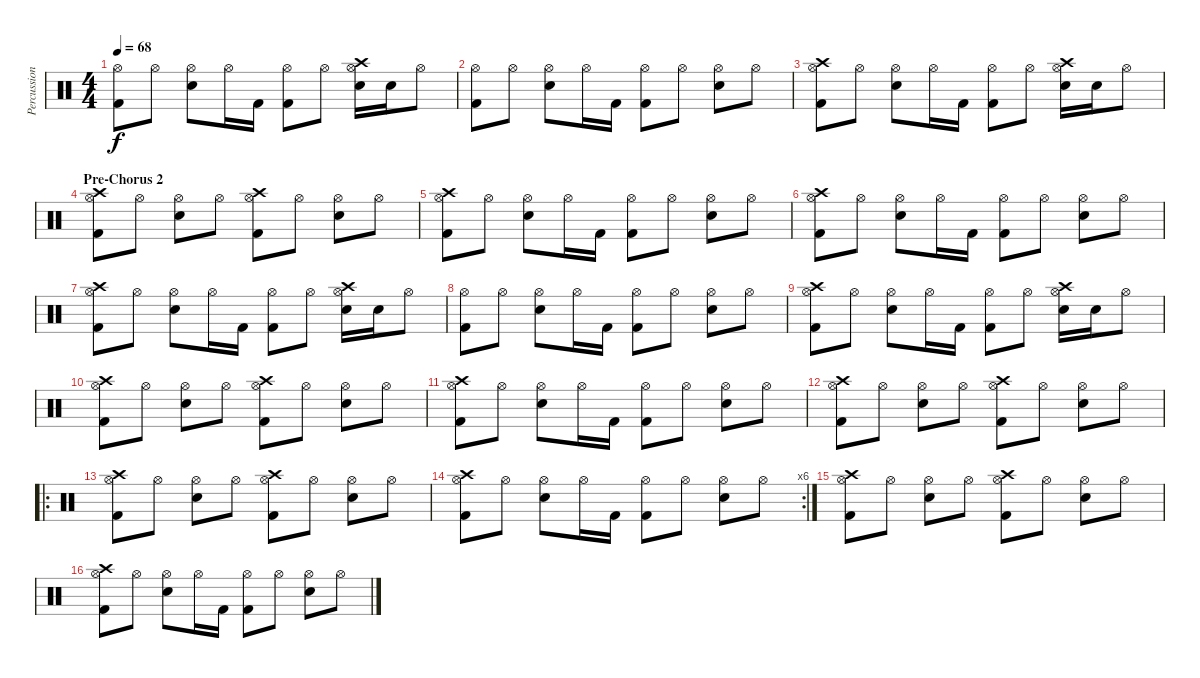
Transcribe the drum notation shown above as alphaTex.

\track ("Percussions" "Percussion") {instrument percussion}
\staff {score}
\articulation defaults
\ts (4 4)
\tempo 68
\clef neutral
\ks c
("Hi-Hat (open)" "Kick (hit) 2").8{dy f} "Hi-Hat (open)".8 ("Hi-Hat (open)" "Snare (hit) 2").8 "Hi-Hat (open)".16 "Kick (hit) 2".16 ("Hi-Hat (open)" "Kick (hit) 2").8 "Hi-Hat (open)".8 ("Hi-Hat (open)" "Crash high (hit)" "Snare (hit) 2").16 "Snare (hit) 2".16 "Hi-Hat (open)".8 |
("Hi-Hat (open)" "Kick (hit) 2").8 "Hi-Hat (open)".8 ("Hi-Hat (open)" "Snare (hit) 2").8 "Hi-Hat (open)".16 "Kick (hit) 2".16 ("Hi-Hat (open)" "Kick (hit) 2").8 "Hi-Hat (open)".8 ("Hi-Hat (open)" "Snare (hit) 2").8 "Hi-Hat (open)".8 |
("Hi-Hat (open)" "Crash high (hit)" "Kick (hit) 2").8 "Hi-Hat (open)".8 ("Hi-Hat (open)" "Snare (hit) 2").8 "Hi-Hat (open)".16 "Kick (hit) 2".16 ("Hi-Hat (open)" "Kick (hit) 2").8 "Hi-Hat (open)".8 ("Hi-Hat (open)" "Crash high (hit)" "Snare (hit) 2").16 "Snare (hit) 2".16 "Hi-Hat (open)".8 |
\section ("" "Pre-Chorus 2")
("Hi-Hat (open)" "Crash high (hit)" "Kick (hit) 2").8 "Hi-Hat (open)".8 ("Hi-Hat (open)" "Snare (hit) 2").8 "Hi-Hat (open)".8 ("Hi-Hat (open)" "Crash high (hit)" "Kick (hit) 2").8 "Hi-Hat (open)".8 ("Hi-Hat (open)" "Snare (hit) 2").8 "Hi-Hat (open)".8 |
("Hi-Hat (open)" "Crash high (hit)" "Kick (hit) 2").8 "Hi-Hat (open)".8 ("Hi-Hat (open)" "Snare (hit) 2").8 "Hi-Hat (open)".16 "Kick (hit) 2".16 ("Hi-Hat (open)" "Kick (hit) 2").8 "Hi-Hat (open)".8 ("Hi-Hat (open)" "Snare (hit) 2").8 "Hi-Hat (open)".8 |
("Hi-Hat (open)" "Crash high (hit)" "Kick (hit) 2").8 "Hi-Hat (open)".8 ("Hi-Hat (open)" "Snare (hit) 2").8 "Hi-Hat (open)".16 "Kick (hit) 2".16 ("Hi-Hat (open)" "Kick (hit) 2").8 "Hi-Hat (open)".8 ("Hi-Hat (open)" "Snare (hit) 2").8 "Hi-Hat (open)".8 |
("Hi-Hat (open)" "Crash high (hit)" "Kick (hit) 2").8 "Hi-Hat (open)".8 ("Hi-Hat (open)" "Snare (hit) 2").8 "Hi-Hat (open)".16 "Kick (hit) 2".16 ("Hi-Hat (open)" "Kick (hit) 2").8 "Hi-Hat (open)".8 ("Hi-Hat (open)" "Crash high (hit)" "Snare (hit) 2").16 "Snare (hit) 2".16 "Hi-Hat (open)".8 |
("Hi-Hat (open)" "Kick (hit) 2").8 "Hi-Hat (open)".8 ("Hi-Hat (open)" "Snare (hit) 2").8 "Hi-Hat (open)".16 "Kick (hit) 2".16 ("Hi-Hat (open)" "Kick (hit) 2").8 "Hi-Hat (open)".8 ("Hi-Hat (open)" "Snare (hit) 2").8 "Hi-Hat (open)".8 |
("Hi-Hat (open)" "Crash high (hit)" "Kick (hit) 2").8 "Hi-Hat (open)".8 ("Hi-Hat (open)" "Snare (hit) 2").8 "Hi-Hat (open)".16 "Kick (hit) 2".16 ("Hi-Hat (open)" "Kick (hit) 2").8 "Hi-Hat (open)".8 ("Hi-Hat (open)" "Crash high (hit)" "Snare (hit) 2").16 "Snare (hit) 2".16 "Hi-Hat (open)".8 |
("Hi-Hat (open)" "Crash high (hit)" "Kick (hit) 2").8 "Hi-Hat (open)".8 ("Hi-Hat (open)" "Snare (hit) 2").8 "Hi-Hat (open)".8 ("Hi-Hat (open)" "Crash high (hit)" "Kick (hit) 2").8 "Hi-Hat (open)".8 ("Hi-Hat (open)" "Snare (hit) 2").8 "Hi-Hat (open)".8 |
("Hi-Hat (open)" "Crash high (hit)" "Kick (hit) 2").8 "Hi-Hat (open)".8 ("Hi-Hat (open)" "Snare (hit) 2").8 "Hi-Hat (open)".16 "Kick (hit) 2".16 ("Hi-Hat (open)" "Kick (hit) 2").8 "Hi-Hat (open)".8 ("Hi-Hat (open)" "Snare (hit) 2").8 "Hi-Hat (open)".8 |
("Hi-Hat (open)" "Crash high (hit)" "Kick (hit) 2").8 "Hi-Hat (open)".8 ("Hi-Hat (open)" "Snare (hit) 2").8 "Hi-Hat (open)".8 ("Hi-Hat (open)" "Crash high (hit)" "Kick (hit) 2").8 "Hi-Hat (open)".8 ("Hi-Hat (open)" "Snare (hit) 2").8 "Hi-Hat (open)".8 |
\ro
("Hi-Hat (open)" "Crash high (hit)" "Kick (hit) 2").8 "Hi-Hat (open)".8 ("Hi-Hat (open)" "Snare (hit) 2").8 "Hi-Hat (open)".8 ("Hi-Hat (open)" "Crash high (hit)" "Kick (hit) 2").8 "Hi-Hat (open)".8 ("Hi-Hat (open)" "Snare (hit) 2").8 "Hi-Hat (open)".8 |
\rc 6
("Hi-Hat (open)" "Crash high (hit)" "Kick (hit) 2").8 "Hi-Hat (open)".8 ("Hi-Hat (open)" "Snare (hit) 2").8 "Hi-Hat (open)".16 "Kick (hit) 2".16 ("Hi-Hat (open)" "Kick (hit) 2").8 "Hi-Hat (open)".8 ("Hi-Hat (open)" "Snare (hit) 2").8 "Hi-Hat (open)".8 |
("Hi-Hat (open)" "Crash high (hit)" "Kick (hit) 2").8 "Hi-Hat (open)".8 ("Hi-Hat (open)" "Snare (hit) 2").8 "Hi-Hat (open)".8 ("Hi-Hat (open)" "Crash high (hit)" "Kick (hit) 2").8 "Hi-Hat (open)".8 ("Hi-Hat (open)" "Snare (hit) 2").8 "Hi-Hat (open)".8 |
("Hi-Hat (open)" "Crash high (hit)" "Kick (hit) 2").8 "Hi-Hat (open)".8 ("Hi-Hat (open)" "Snare (hit) 2").8 "Hi-Hat (open)".16 "Kick (hit) 2".16 ("Hi-Hat (open)" "Kick (hit) 2").8 "Hi-Hat (open)".8 ("Hi-Hat (open)" "Snare (hit) 2").8 "Hi-Hat (open)".8
